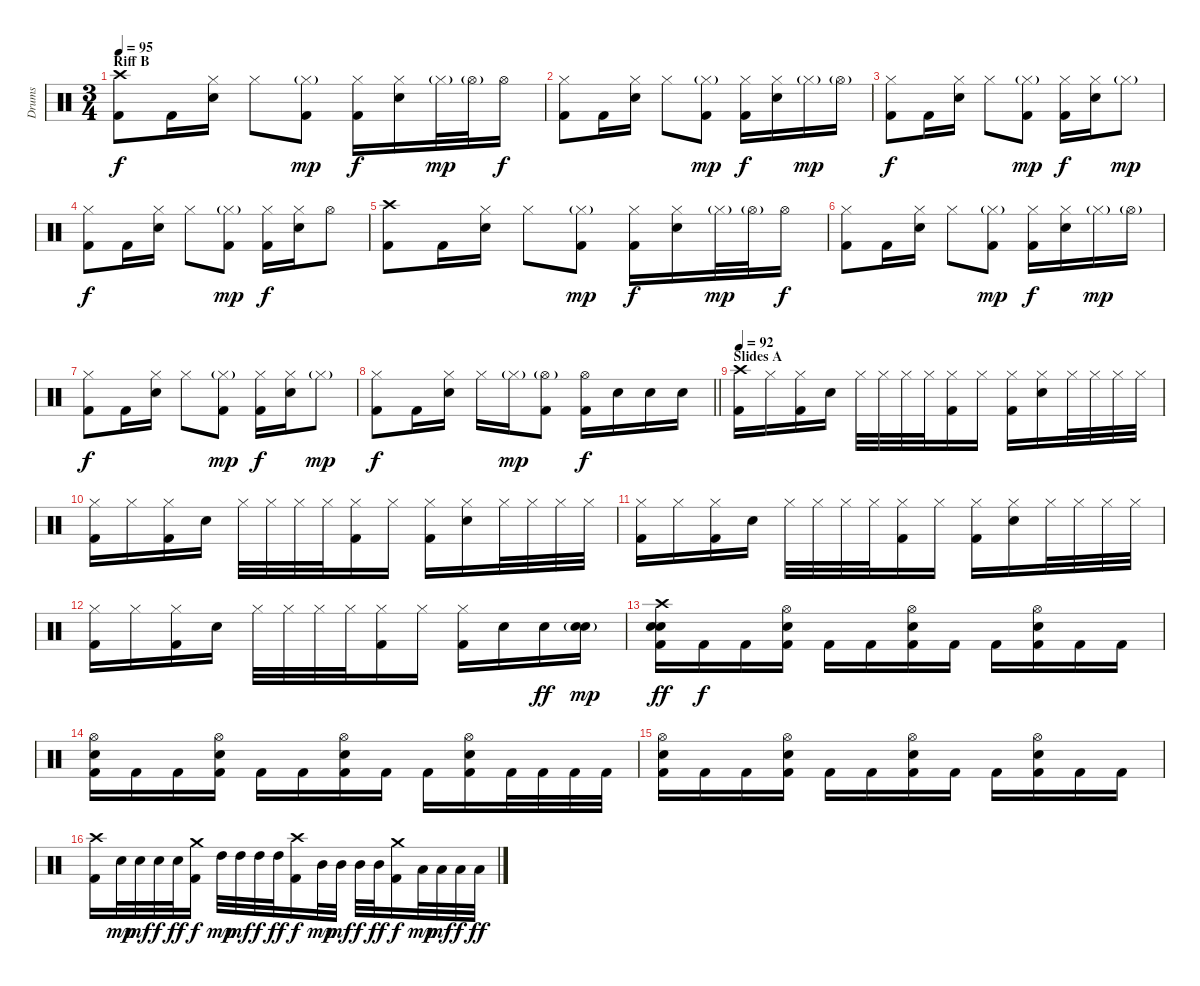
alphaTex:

\track ("Drums" "Drums") {instrument percussion}
\staff {score}
\articulation defaults
\ts (3 4)
\section ("" "Riff B")
\tempo 95
\clef neutral
\ks c
("Crash high (hit)" "Kick (hit) 2").8{dy f} "Kick (hit) 2".16 ("Hi-Hat (closed)" "Electric Snare (hit)").16 "Hi-Hat (closed)".8 ("Hi-Hat (closed)"{g} "Kick (hit) 2").8{dy mp} ("Hi-Hat (closed)" "Kick (hit) 2").16{dy f} ("Hi-Hat (closed)" "Electric Snare (hit)").16 "Hi-Hat (closed)"{g}.32{dy mp} "Hi-Hat (open)"{g}.32 "Hi-Hat (open)".16{dy f} |
("Hi-Hat (closed)" "Kick (hit) 2").8 "Kick (hit) 2".16 ("Hi-Hat (closed)" "Electric Snare (hit)").16 "Hi-Hat (closed)".8 ("Hi-Hat (closed)"{g} "Kick (hit) 2").8{dy mp} ("Hi-Hat (closed)" "Kick (hit) 2").16{dy f} ("Hi-Hat (closed)" "Electric Snare (hit)").16 "Hi-Hat (closed)"{g}.16{dy mp} "Hi-Hat (open)"{g}.16 |
("Hi-Hat (closed)" "Kick (hit) 2").8{dy f} "Kick (hit) 2".16 ("Hi-Hat (closed)" "Electric Snare (hit)").16 "Hi-Hat (closed)".8 ("Hi-Hat (closed)"{g} "Kick (hit) 2").8{dy mp} ("Hi-Hat (closed)" "Kick (hit) 2").16{dy f} ("Hi-Hat (closed)" "Electric Snare (hit)").16 "Hi-Hat (closed)"{g}.8{dy mp} |
("Hi-Hat (closed)" "Kick (hit) 2").8{dy f} "Kick (hit) 2".16 ("Hi-Hat (closed)" "Electric Snare (hit)").16 "Hi-Hat (closed)".8 ("Hi-Hat (closed)"{g} "Kick (hit) 2").8{dy mp} ("Hi-Hat (closed)" "Kick (hit) 2").16{dy f} ("Hi-Hat (closed)" "Electric Snare (hit)").16 "Hi-Hat (open)".8 |
("Crash high (hit)" "Kick (hit) 2").8 "Kick (hit) 2".16 ("Hi-Hat (closed)" "Electric Snare (hit)").16 "Hi-Hat (closed)".8 ("Hi-Hat (closed)"{g} "Kick (hit) 2").8{dy mp} ("Hi-Hat (closed)" "Kick (hit) 2").16{dy f} ("Hi-Hat (closed)" "Electric Snare (hit)").16 "Hi-Hat (closed)"{g}.32{dy mp} "Hi-Hat (open)"{g}.32 "Hi-Hat (open)".16{dy f} |
("Hi-Hat (closed)" "Kick (hit) 2").8 "Kick (hit) 2".16 ("Hi-Hat (closed)" "Electric Snare (hit)").16 "Hi-Hat (closed)".8 ("Hi-Hat (closed)"{g} "Kick (hit) 2").8{dy mp} ("Hi-Hat (closed)" "Kick (hit) 2").16{dy f} ("Hi-Hat (closed)" "Electric Snare (hit)").16 "Hi-Hat (closed)"{g}.16{dy mp} "Hi-Hat (open)"{g}.16 |
("Hi-Hat (closed)" "Kick (hit) 2").8{dy f} "Kick (hit) 2".16 ("Hi-Hat (closed)" "Electric Snare (hit)").16 "Hi-Hat (closed)".8 ("Hi-Hat (closed)"{g} "Kick (hit) 2").8{dy mp} ("Hi-Hat (closed)" "Kick (hit) 2").16{dy f} ("Hi-Hat (closed)" "Electric Snare (hit)").16 "Hi-Hat (closed)"{g}.8{dy mp} |
\barLineRight lightlight
("Hi-Hat (closed)" "Kick (hit) 2").8{dy f} "Kick (hit) 2".16 ("Hi-Hat (closed)" "Electric Snare (hit)").16 "Hi-Hat (closed)".16 "Hi-Hat (closed)"{g}.16{dy mp} ("Hi-Hat (open)"{g} "Kick (hit) 2").8 ("Hi-Hat (open)" "Kick (hit) 2").16{dy f} "Electric Snare (hit)".16 "Electric Snare (hit)".16 "Electric Snare (hit)".16 |
\section ("" "Slides A")
\tempo 92
("Crash high (hit)" "Kick (hit) 2").16 "Hi-Hat (closed)".16 ("Hi-Hat (closed)" "Kick (hit) 2").16 "Electric Snare (hit)".16 "Hi-Hat (closed)".32 "Hi-Hat (closed)".32 "Hi-Hat (closed)".32 "Hi-Hat (closed)".32 ("Hi-Hat (closed)" "Kick (hit) 2").16 "Hi-Hat (closed)".16 ("Hi-Hat (closed)" "Kick (hit) 2").16 ("Hi-Hat (closed)" "Electric Snare (hit)").16 "Hi-Hat (closed)".32 "Hi-Hat (closed)".32 "Hi-Hat (closed)".32 "Hi-Hat (closed)".32 |
("Hi-Hat (closed)" "Kick (hit) 2").16 "Hi-Hat (closed)".16 ("Hi-Hat (closed)" "Kick (hit) 2").16 "Electric Snare (hit)".16 "Hi-Hat (closed)".32 "Hi-Hat (closed)".32 "Hi-Hat (closed)".32 "Hi-Hat (closed)".32 ("Hi-Hat (closed)" "Kick (hit) 2").16 "Hi-Hat (closed)".16 ("Hi-Hat (closed)" "Kick (hit) 2").16 ("Hi-Hat (closed)" "Electric Snare (hit)").16 "Hi-Hat (closed)".32 "Hi-Hat (closed)".32 "Hi-Hat (closed)".32 "Hi-Hat (closed)".32 |
("Hi-Hat (closed)" "Kick (hit) 2").16 "Hi-Hat (closed)".16 ("Hi-Hat (closed)" "Kick (hit) 2").16 "Electric Snare (hit)".16 "Hi-Hat (closed)".32 "Hi-Hat (closed)".32 "Hi-Hat (closed)".32 "Hi-Hat (closed)".32 ("Hi-Hat (closed)" "Kick (hit) 2").16 "Hi-Hat (closed)".16 ("Hi-Hat (closed)" "Kick (hit) 2").16 ("Hi-Hat (closed)" "Electric Snare (hit)").16 "Hi-Hat (closed)".32 "Hi-Hat (closed)".32 "Hi-Hat (closed)".32 "Hi-Hat (closed)".32 |
("Hi-Hat (closed)" "Kick (hit) 2").16 "Hi-Hat (closed)".16 ("Hi-Hat (closed)" "Kick (hit) 2").16 "Electric Snare (hit)".16 "Hi-Hat (closed)".32 "Hi-Hat (closed)".32 "Hi-Hat (closed)".32 "Hi-Hat (closed)".32 ("Hi-Hat (closed)" "Kick (hit) 2").16 "Hi-Hat (closed)".16 ("Hi-Hat (closed)" "Kick (hit) 2").16 "Electric Snare (hit)".16 "Electric Snare (hit)".16{dy ff} ("Electric Snare (hit)" "Electric Snare (hit)"{g}).16{dy mp} |
("Crash high (hit)" "Electric Snare (hit)" "Electric Snare (hit)" "Kick (hit) 2").16{dy ff} "Kick (hit) 2".16{dy f} "Kick (hit) 2".16 ("Hi-Hat (open)" "Electric Snare (hit)" "Kick (hit) 2").16 "Kick (hit) 2".16 "Kick (hit) 2".16 ("Hi-Hat (open)" "Electric Snare (hit)" "Kick (hit) 2").16 "Kick (hit) 2".16 "Kick (hit) 2".16 ("Hi-Hat (open)" "Electric Snare (hit)" "Kick (hit) 2").16 "Kick (hit) 2".16 "Kick (hit) 2".16 |
("Hi-Hat (open)" "Electric Snare (hit)" "Kick (hit) 2").16 "Kick (hit) 2".16 "Kick (hit) 2".16 ("Hi-Hat (open)" "Electric Snare (hit)" "Kick (hit) 2").16 "Kick (hit) 2".16 "Kick (hit) 2".16 ("Hi-Hat (open)" "Electric Snare (hit)" "Kick (hit) 2").16 "Kick (hit) 2".16 "Kick (hit) 2".16 ("Hi-Hat (open)" "Electric Snare (hit)" "Kick (hit) 2").16 "Kick (hit) 2".32 "Kick (hit) 2".32 "Kick (hit) 2".32 "Kick (hit) 2".32 |
("Hi-Hat (open)" "Electric Snare (hit)" "Kick (hit) 2").16 "Kick (hit) 2".16 "Kick (hit) 2".16 ("Hi-Hat (open)" "Electric Snare (hit)" "Kick (hit) 2").16 "Kick (hit) 2".16 "Kick (hit) 2".16 ("Hi-Hat (open)" "Electric Snare (hit)" "Kick (hit) 2").16 "Kick (hit) 2".16 "Kick (hit) 2".16 ("Hi-Hat (open)" "Electric Snare (hit)" "Kick (hit) 2").16 "Kick (hit) 2".16 "Kick (hit) 2".16 |
("Crash high (hit)" "Kick (hit) 2").16 "Electric Snare (hit)".32{dy mp} "Electric Snare (hit)".32{dy mf} "Electric Snare (hit)".32{dy f} "Electric Snare (hit)".32{dy ff} ("Crash medium (hit)" "Kick (hit) 2").16{dy f} "High Tom (hit)".32{dy mp} "High Tom (hit)".32{dy mf} "High Tom (hit)".32{dy f} "High Tom (hit)".32{dy ff} ("Crash high (hit)" "Kick (hit) 2").16{dy f} "Mid Tom (hit)".32{dy mp} "Mid Tom (hit)".32{dy mf} "Mid Tom (hit)".32{dy f} "Mid Tom (hit)".32{dy ff} ("Crash medium (hit)" "Kick (hit) 2").16{dy f} "Low Tom (hit)".32{dy mp} "Low Tom (hit)".32{dy mf} "Low Tom (hit)".32{dy f} "Low Tom (hit)".32{dy ff}
